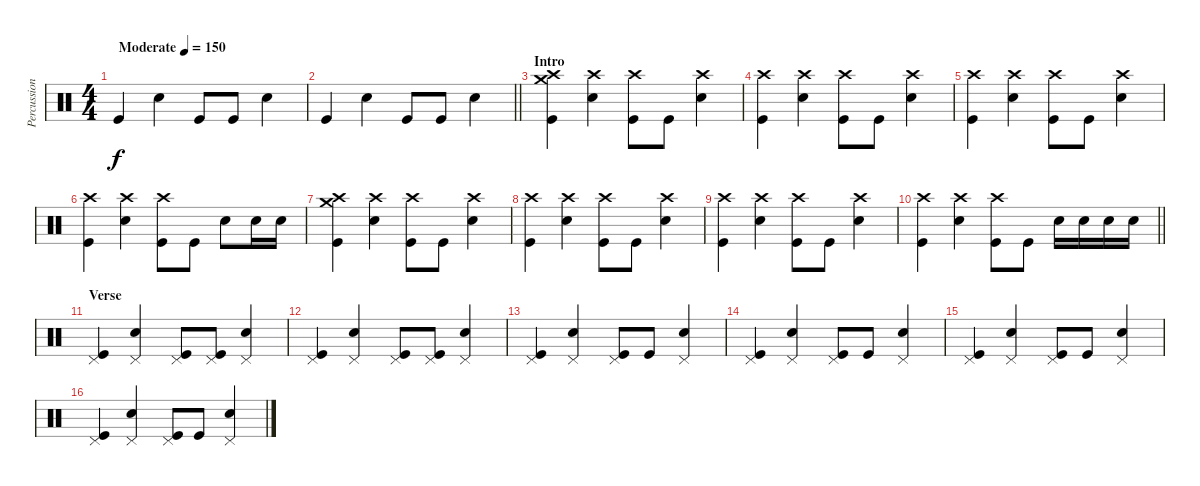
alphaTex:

\track ("Percussion" "Percussion") {instrument percussion}
\staff {score}
\articulation defaults
\ts (4 4)
\tempo (150 "Moderate")
\clef neutral
\ks c "Kick (hit)".4{dy f} "Electric Snare (hit)".4 "Kick (hit)".8 "Kick (hit)".8 "Electric Snare (hit)".4
|
\barLineRight lightlight "Kick (hit)".4 "Electric Snare (hit)".4 "Kick (hit)".8 "Kick (hit)".8 "Electric Snare (hit)".4
|
\section ("" "Intro")
("Crash high (hit)" "Crash medium (hit)" "Kick (hit)").4 ("Crash high (hit)" "Electric Snare (hit)").4 ("Crash high (hit)" "Kick (hit)").8 "Kick (hit)".8 ("Crash high (hit)" "Electric Snare (hit)").4 |
("Crash high (hit)" "Kick (hit)").4 ("Crash high (hit)" "Electric Snare (hit)").4 ("Crash high (hit)" "Kick (hit)").8 "Kick (hit)".8 ("Crash high (hit)" "Electric Snare (hit)").4 |
("Crash high (hit)" "Kick (hit)").4 ("Crash high (hit)" "Electric Snare (hit)").4 ("Crash high (hit)" "Kick (hit)").8 "Kick (hit)".8 ("Crash high (hit)" "Electric Snare (hit)").4 |
("Crash high (hit)" "Kick (hit)").4 ("Crash high (hit)" "Electric Snare (hit)").4 ("Crash high (hit)" "Kick (hit)").8 "Kick (hit)".8 "Electric Snare (hit)".8 "Electric Snare (hit)".16 "Electric Snare (hit)".16 |
("Crash high (hit)" "Crash medium (hit)" "Kick (hit)").4 ("Crash high (hit)" "Electric Snare (hit)").4 ("Crash high (hit)" "Kick (hit)").8 "Kick (hit)".8 ("Crash high (hit)" "Electric Snare (hit)").4 |
("Crash high (hit)" "Kick (hit)").4 ("Crash high (hit)" "Electric Snare (hit)").4 ("Crash high (hit)" "Kick (hit)").8 "Kick (hit)".8 ("Crash high (hit)" "Electric Snare (hit)").4 |
("Crash high (hit)" "Kick (hit)").4 ("Crash high (hit)" "Electric Snare (hit)").4 ("Crash high (hit)" "Kick (hit)").8 "Kick (hit)".8 ("Crash high (hit)" "Electric Snare (hit)").4 |
\barLineRight lightlight
("Crash high (hit)" "Kick (hit)").4 ("Crash high (hit)" "Electric Snare (hit)").4 ("Crash high (hit)" "Kick (hit)").8 "Kick (hit)".8 "Electric Snare (hit)".16 "Electric Snare (hit)".16 "Electric Snare (hit)".16 "Electric Snare (hit)".16 |
\section ("" "Verse")
("Pedal Hi-Hat (hit)" "Kick (hit)").4 ("Pedal Hi-Hat (hit)" "Electric Snare (hit)").4 ("Pedal Hi-Hat (hit)" "Kick (hit)").8 ("Pedal Hi-Hat (hit)" "Kick (hit)").8 ("Pedal Hi-Hat (hit)" "Electric Snare (hit)").4 |
("Pedal Hi-Hat (hit)" "Kick (hit)").4 ("Pedal Hi-Hat (hit)" "Electric Snare (hit)").4 ("Pedal Hi-Hat (hit)" "Kick (hit)").8 ("Pedal Hi-Hat (hit)" "Kick (hit)").8 ("Pedal Hi-Hat (hit)" "Electric Snare (hit)").4 |
("Pedal Hi-Hat (hit)" "Kick (hit)").4 ("Pedal Hi-Hat (hit)" "Electric Snare (hit)").4 ("Pedal Hi-Hat (hit)" "Kick (hit)").8 "Kick (hit)".8 ("Pedal Hi-Hat (hit)" "Electric Snare (hit)").4 |
("Pedal Hi-Hat (hit)" "Kick (hit)").4 ("Pedal Hi-Hat (hit)" "Electric Snare (hit)").4 ("Pedal Hi-Hat (hit)" "Kick (hit)").8 "Kick (hit)".8 ("Pedal Hi-Hat (hit)" "Electric Snare (hit)").4 |
("Pedal Hi-Hat (hit)" "Kick (hit)").4 ("Pedal Hi-Hat (hit)" "Electric Snare (hit)").4 ("Pedal Hi-Hat (hit)" "Kick (hit)").8 "Kick (hit)".8 ("Pedal Hi-Hat (hit)" "Electric Snare (hit)").4 |
("Pedal Hi-Hat (hit)" "Kick (hit)").4 ("Pedal Hi-Hat (hit)" "Electric Snare (hit)").4 ("Pedal Hi-Hat (hit)" "Kick (hit)").8 "Kick (hit)".8 ("Pedal Hi-Hat (hit)" "Electric Snare (hit)").4
